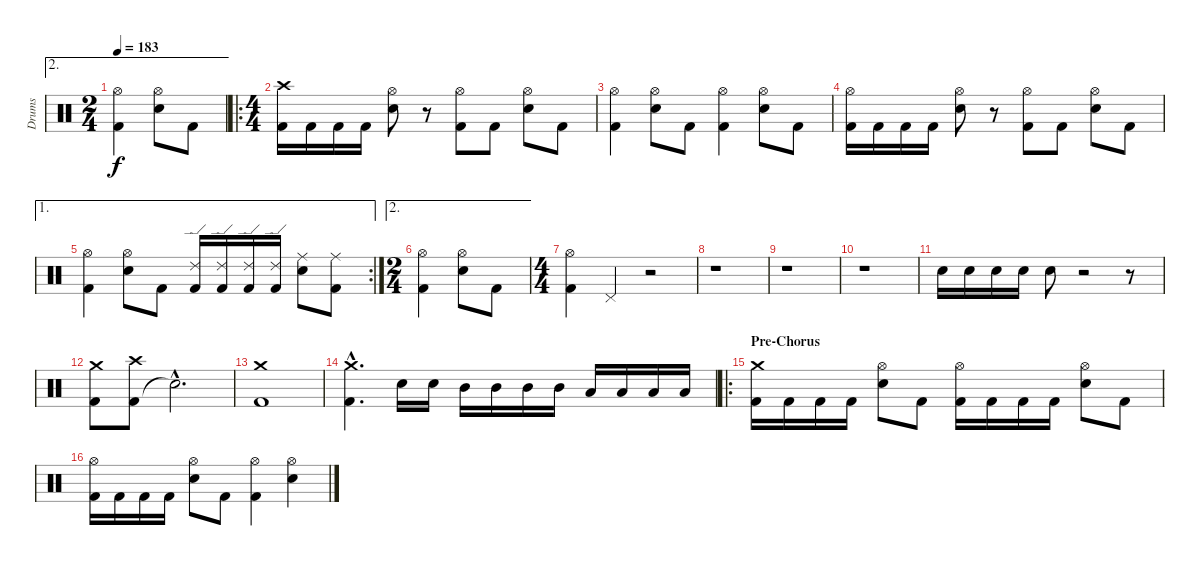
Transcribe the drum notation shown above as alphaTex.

\track ("Drums" "Drums") {instrument percussion}
\staff {score}
\articulation defaults
\ae 2
\ts (2 4)
\tempo 183
\clef neutral
\ks c
("Kick (hit) 2" "Hi-Hat (open)").4{dy f} ("Electric Snare (hit)" "Hi-Hat (open)").8 "Kick (hit) 2".8 |
\ro
\ts (4 4)
("Kick (hit) 2" "Crash high (hit)").16 "Kick (hit) 2".16 "Kick (hit) 2".16 "Kick (hit) 2".16 ("Electric Snare (hit)" "Hi-Hat (open)").8 r.8 ("Kick (hit) 2" "Hi-Hat (open)").8 "Kick (hit) 2".8 ("Electric Snare (hit)" "Hi-Hat (open)").8 "Kick (hit) 2".8 |
("Kick (hit) 2" "Hi-Hat (open)").4 ("Electric Snare (hit)" "Hi-Hat (open)").8 "Kick (hit) 2".8 ("Kick (hit) 2" "Hi-Hat (open)").4 ("Electric Snare (hit)" "Hi-Hat (open)").8 "Kick (hit) 2".8 |
("Kick (hit) 2" "Hi-Hat (open)").16 "Kick (hit) 2".16 "Kick (hit) 2".16 "Kick (hit) 2".16 ("Electric Snare (hit)" "Hi-Hat (open)").8 r.8 ("Kick (hit) 2" "Hi-Hat (open)").8 "Kick (hit) 2".8 ("Electric Snare (hit)" "Hi-Hat (open)").8 "Kick (hit) 2".8 |
\ae 1
\rc 2
("Kick (hit) 2" "Hi-Hat (open)").4 ("Electric Snare (hit)" "Hi-Hat (open)").8 "Kick (hit) 2".8 ("Kick (hit) 2" "Ride (edge) 2").16 ("Kick (hit) 2" "Ride (edge) 2").16 ("Kick (hit) 2" "Ride (edge) 2").16 ("Kick (hit) 2" "Ride (edge) 2").16 ("Electric Snare (hit)" "Ride (middle)").8 ("Kick (hit) 2" "Ride (middle)").8 |
\ae 2
\ts (2 4)
("Kick (hit) 2" "Hi-Hat (open)").4 ("Electric Snare (hit)" "Hi-Hat (open)").8 "Kick (hit) 2".8 |
\ts (4 4)
("Kick (hit) 2" "Hi-Hat (open)").4 "Pedal Hi-Hat (hit)".4 r.2 |
r.1 |
r.1 |
r.1 |
"Electric Snare (hit)".16 "Electric Snare (hit)".16 "Electric Snare (hit)".16 "Electric Snare (hit)".16 "Electric Snare (hit)".8 r.2 r.8 |
("Kick (hit) 2" "Crash medium (hit)").8 ("Kick (hit) 2" "Crash high (hit)").8 "Snare (hit)"{hac t}.2{d} |
("Kick (hit) 2" "Crash medium (hit)").1 |
("Kick (hit) 2"{hac} "Crash medium (hit)"{hac}).4{d} "Electric Snare (hit)".16 "Electric Snare (hit)".16 "Mid Tom (hit)".16 "Mid Tom (hit)".16 "Mid Tom (hit)".16 "Mid Tom (hit)".16 "Low Tom (hit)".16 "Low Tom (hit)".16 "Low Tom (hit)".16 "Low Tom (hit)".16 |
\ro
\section ("" "Pre-Chorus")
("Kick (hit) 2" "Crash medium (hit)").16 "Kick (hit) 2".16 "Kick (hit) 2".16 "Kick (hit) 2".16 ("Electric Snare (hit)" "Hi-Hat (open)").8 "Kick (hit) 2".8 ("Kick (hit) 2" "Hi-Hat (open)").16 "Kick (hit) 2".16 "Kick (hit) 2".16 "Kick (hit) 2".16 ("Electric Snare (hit)" "Hi-Hat (open)").8 "Kick (hit) 2".8 |
("Kick (hit) 2" "Hi-Hat (open)").16 "Kick (hit) 2".16 "Kick (hit) 2".16 "Kick (hit) 2".16 ("Electric Snare (hit)" "Hi-Hat (open)").8 "Kick (hit) 2".8 ("Kick (hit) 2" "Hi-Hat (open)").4 ("Electric Snare (hit)" "Hi-Hat (open)").4
